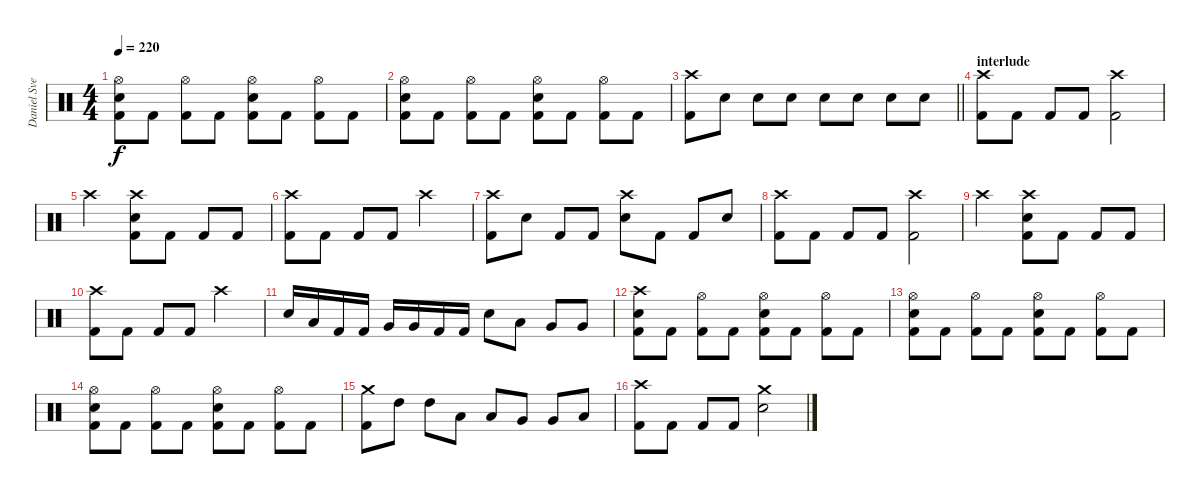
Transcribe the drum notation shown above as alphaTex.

\track ("Daniel Svensson" "Daniel Sve") {instrument percussion}
\staff {score}
\articulation defaults
\ts (4 4)
\tempo 220
\clef neutral
\ks c
("Hi-Hat (open)" "Electric Snare (hit)" "Kick (hit) 2").8{dy f} "Kick (hit) 2".8 ("Hi-Hat (open)" "Kick (hit) 2").8 "Kick (hit) 2".8 ("Hi-Hat (open)" "Electric Snare (hit)" "Kick (hit) 2").8 "Kick (hit) 2".8 ("Hi-Hat (open)" "Kick (hit) 2").8 "Kick (hit) 2".8 |
("Hi-Hat (open)" "Electric Snare (hit)" "Kick (hit) 2").8 "Kick (hit) 2".8 ("Hi-Hat (open)" "Kick (hit) 2").8 "Kick (hit) 2".8 ("Hi-Hat (open)" "Electric Snare (hit)" "Kick (hit) 2").8 "Kick (hit) 2".8 ("Hi-Hat (open)" "Kick (hit) 2").8 "Kick (hit) 2".8 |
\barLineRight lightlight
("Crash high (hit)" "Kick (hit) 2").8 "Electric Snare (hit)".8 "Electric Snare (hit)".8 "Electric Snare (hit)".8 "Electric Snare (hit)".8 "Electric Snare (hit)".8 "Electric Snare (hit)".8 "Electric Snare (hit)".8 |
\section ("" "interlude")
("Crash high (hit)" "Kick (hit) 2").8 "Kick (hit) 2".8 "Kick (hit) 2".8 "Kick (hit) 2".8 ("Crash high (hit)" "Kick (hit) 2").2 |
"Crash high (hit)".2 ("Crash high (hit)" "Electric Snare (hit)" "Kick (hit) 2").8 "Kick (hit) 2".8 "Kick (hit) 2".8 "Kick (hit) 2".8 |
("Crash high (hit)" "Kick (hit) 2").8 "Kick (hit) 2".8 "Kick (hit) 2".8 "Kick (hit) 2".8 "Crash high (hit)".2 |
("Crash high (hit)" "Kick (hit) 2").8 "Electric Snare (hit)".8 "Kick (hit) 2".8 "Kick (hit) 2".8 ("Crash high (hit)" "Electric Snare (hit)").8 "Kick (hit) 2".8 "Kick (hit) 2".8 "Electric Snare (hit)".8 |
("Crash high (hit)" "Kick (hit) 2").8 "Kick (hit) 2".8 "Kick (hit) 2".8 "Kick (hit) 2".8 ("Crash high (hit)" "Kick (hit) 2").2 |
"Crash high (hit)".2 ("Crash high (hit)" "Electric Snare (hit)" "Kick (hit) 2").8 "Kick (hit) 2".8 "Kick (hit) 2".8 "Kick (hit) 2".8 |
("Crash high (hit)" "Kick (hit) 2").8 "Kick (hit) 2".8 "Kick (hit) 2".8 "Kick (hit) 2".8 "Crash high (hit)".2 |
"Electric Snare (hit)".16 "Low Tom (hit)".16 "Kick (hit) 2".16 "Kick (hit) 2".16 "Very Low Tom (hit)".16 "Very Low Tom (hit)".16 "Kick (hit) 2".16 "Kick (hit) 2".16 "Electric Snare (hit)".8 "Low Tom (hit)".8 "Very Low Tom (hit)".8 "Very Low Tom (hit)".8 |
("Crash high (hit)" "Electric Snare (hit)" "Kick (hit) 2").8 "Kick (hit) 2".8 ("Hi-Hat (open)" "Kick (hit) 2").8 "Kick (hit) 2".8 ("Hi-Hat (open)" "Electric Snare (hit)" "Kick (hit) 2").8 "Kick (hit) 2".8 ("Hi-Hat (open)" "Kick (hit) 2").8 "Kick (hit) 2".8 |
("Hi-Hat (open)" "Electric Snare (hit)" "Kick (hit) 2").8 "Kick (hit) 2".8 ("Hi-Hat (open)" "Kick (hit) 2").8 "Kick (hit) 2".8 ("Hi-Hat (open)" "Electric Snare (hit)" "Kick (hit) 2").8 "Kick (hit) 2".8 ("Hi-Hat (open)" "Kick (hit) 2").8 "Kick (hit) 2".8 |
("Hi-Hat (open)" "Electric Snare (hit)" "Kick (hit) 2").8 "Kick (hit) 2".8 ("Hi-Hat (open)" "Kick (hit) 2").8 "Kick (hit) 2".8 ("Hi-Hat (open)" "Electric Snare (hit)" "Kick (hit) 2").8 "Kick (hit) 2".8 ("Hi-Hat (open)" "Kick (hit) 2").8 "Kick (hit) 2".8 |
("Crash medium (hit)" "Kick (hit) 2").8 "High Tom (hit)".8 "High Tom (hit)".8 "Low Tom (hit)".8 "Low Tom (hit)".8 "Very Low Tom (hit)".8 "Very Low Tom (hit)".8 "Low Floor Tom (hit)".8 |
("Crash high (hit)" "Kick (hit) 2").8 "Kick (hit) 2".8 "Kick (hit) 2".8 "Kick (hit) 2".8 ("Crash medium (hit)" "Electric Snare (hit)").2
